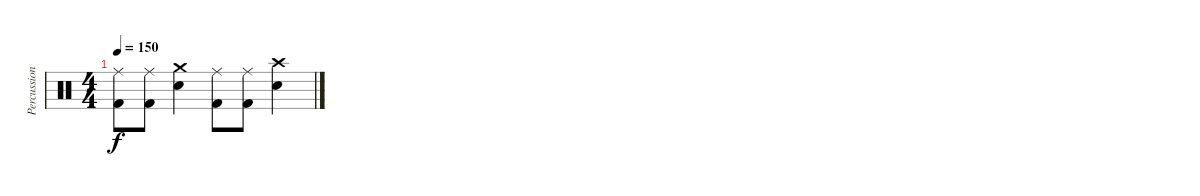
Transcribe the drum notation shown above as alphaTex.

\track ("Percussion" "Percussion") {instrument percussion}
\staff {score}
\articulation defaults
\ts (4 4)
\tempo 150
\clef neutral
\ks c
("Ride (middle)" "Kick (hit) 2").8{dy f} ("Ride (middle)" "Kick (hit) 2").8 ("Crash medium (hit)" "Snare (hit) 2").4 ("Ride (middle)" "Kick (hit) 2").8 ("Ride (middle)" "Kick (hit) 2").8 ("Crash high (hit)" "Snare (hit) 2").4
